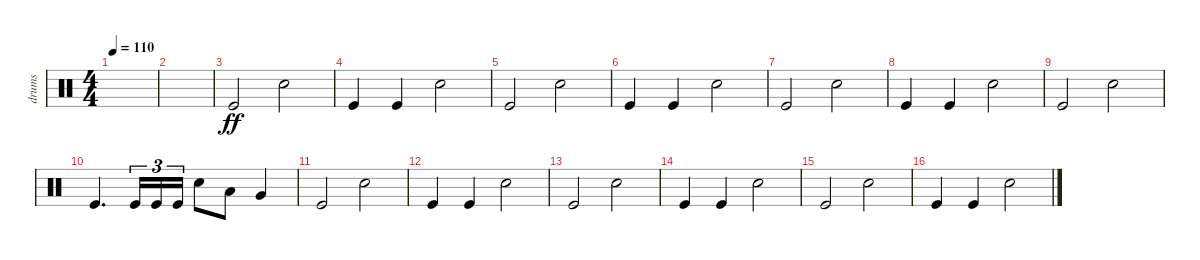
\track ("drums" "drums") {instrument percussion}
\staff {score}
\articulation defaults
\ts (4 4)
\tempo 110
\clef neutral
\ks c
|
|
"Kick (hit)".2{dy ff} "Electric Snare (hit)".2 |
"Kick (hit)".4 "Kick (hit)".4 "Electric Snare (hit)".2 |
"Kick (hit)".2 "Electric Snare (hit)".2 |
"Kick (hit)".4 "Kick (hit)".4 "Electric Snare (hit)".2 |
"Kick (hit)".2 "Electric Snare (hit)".2 |
"Kick (hit)".4 "Kick (hit)".4 "Electric Snare (hit)".2 |
"Kick (hit)".2 "Electric Snare (hit)".2 |
"Kick (hit)".4{d} "Kick (hit)".16{tu (3 2)} "Kick (hit)".16{tu (3 2)} "Kick (hit)".16{tu (3 2)} "Electric Snare (hit)".8 "Low Tom (hit)".8 "Very Low Tom (hit)".4 |
"Kick (hit)".2 "Electric Snare (hit)".2 |
"Kick (hit)".4 "Kick (hit)".4 "Electric Snare (hit)".2 |
"Kick (hit)".2 "Electric Snare (hit)".2 |
"Kick (hit)".4 "Kick (hit)".4 "Electric Snare (hit)".2 |
"Kick (hit)".2 "Electric Snare (hit)".2 |
"Kick (hit)".4 "Kick (hit)".4 "Electric Snare (hit)".2
